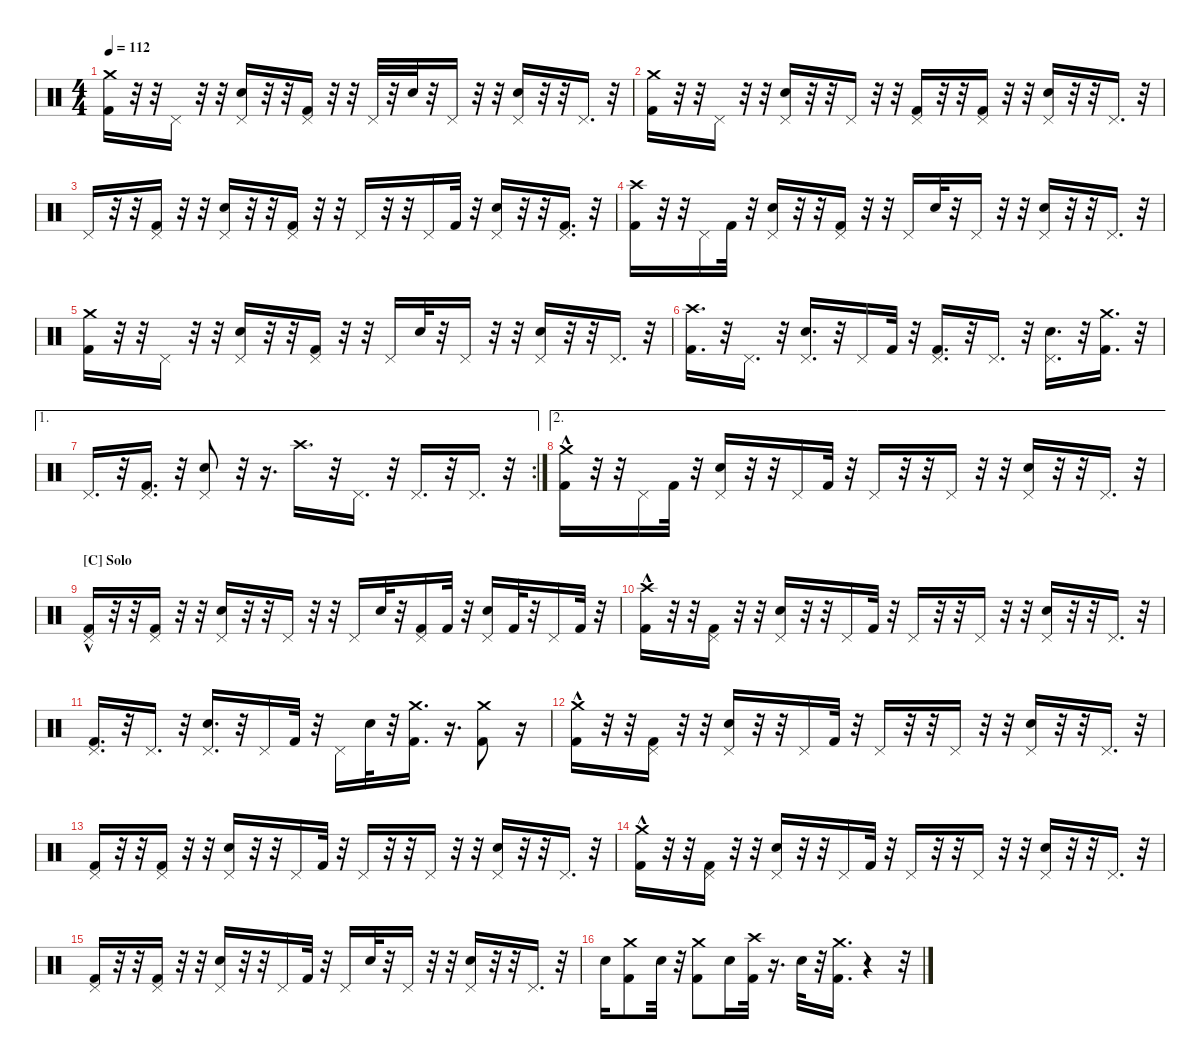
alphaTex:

\hideDynamics
\bracketExtendMode nobrackets
\singleTrackTrackNamePolicy hidden
\multiTrackTrackNamePolicy hidden
\firstSystemTrackNameMode fullname
\firstSystemTrackNameOrientation horizontal
\otherSystemsTrackNameOrientation horizontal
\track ("Drumkit" "Drums") {instrument percussion}
\staff {score}
\articulation defaults
\ts (4 4)
\tempo 112
\clef neutral
\ks c
("Crash medium (hit)" "Kick (hit) 2").16{dy f beam Down} r.32{beam Down} r.32{beam Down} "Pedal Hi-Hat (hit)".16{beam Down} r.32{beam Down} r.32{beam Down} ("Pedal Hi-Hat (hit)" "Snare (hit) 2").16{beam Up} r.32{beam Up} r.32{beam Up} ("Pedal Hi-Hat (hit)" "Kick (hit) 2").16{beam Up} r.32{beam Up} r.32{beam Up} "Pedal Hi-Hat (hit)".32{beam Up} r.32{beam Up} "Snare (hit) 2".32{beam Up} r.32{beam Up} "Pedal Hi-Hat (hit)".16{beam Up} r.32{beam Up} r.32{beam Up} ("Pedal Hi-Hat (hit)" "Snare (hit) 2").16{beam Up} r.32{beam Up} r.32{beam Up} "Pedal Hi-Hat (hit)".16{d beam Up} r.32{beam Up} |
("Kick (hit) 2" "Crash medium (hit)").16{beam Down} r.32{beam Down} r.32{beam Down} "Pedal Hi-Hat (hit)".16{beam Down} r.32{beam Down} r.32{beam Down} ("Pedal Hi-Hat (hit)" "Snare (hit) 2").16{beam Up} r.32{beam Up} r.32{beam Up} "Pedal Hi-Hat (hit)".16{beam Up} r.32{beam Up} r.32{beam Up} ("Pedal Hi-Hat (hit)" "Kick (hit) 2").16{beam Up} r.32{beam Up} r.32{beam Up} ("Pedal Hi-Hat (hit)" "Kick (hit) 2").16{beam Up} r.32{beam Up} r.32{beam Up} ("Pedal Hi-Hat (hit)" "Snare (hit) 2").16{beam Up} r.32{beam Up} r.32{beam Up} "Pedal Hi-Hat (hit)".16{d beam Up} r.32{beam Up} |
"Pedal Hi-Hat (hit)".16{beam Up} r.32{beam Up} r.32{beam Up} ("Pedal Hi-Hat (hit)" "Kick (hit) 2").16{beam Up} r.32{beam Up} r.32{beam Up} ("Pedal Hi-Hat (hit)" "Snare (hit) 2").16{beam Up} r.32{beam Up} r.32{beam Up} ("Pedal Hi-Hat (hit)" "Kick (hit) 2").16{beam Up} r.32{beam Up} r.32{beam Up} "Pedal Hi-Hat (hit)".16{beam Up} r.32{beam Up} r.32{beam Up} "Pedal Hi-Hat (hit)".16{beam Up} "Kick (hit) 2".32{beam Up} r.32{beam Up} ("Pedal Hi-Hat (hit)" "Snare (hit) 2").16{beam Up} r.32{beam Up} r.32{beam Up} ("Pedal Hi-Hat (hit)" "Kick (hit) 2").16{d beam Up} r.32{beam Up} |
("Crash high (hit)" "Kick (hit) 2").16{beam Down} r.32{beam Down} r.32{beam Down} "Pedal Hi-Hat (hit)".16{beam Down} "Kick (hit) 2".32{beam Down} r.32{beam Down} ("Pedal Hi-Hat (hit)" "Snare (hit) 2").16{beam Up} r.32{beam Up} r.32{beam Up} ("Pedal Hi-Hat (hit)" "Kick (hit) 2").16{beam Up} r.32{beam Up} r.32{beam Up} "Pedal Hi-Hat (hit)".16{beam Up} "Snare (hit) 2".32{beam Up} r.32{beam Up} "Pedal Hi-Hat (hit)".16{beam Up} r.32{beam Up} r.32{beam Up} ("Pedal Hi-Hat (hit)" "Snare (hit) 2").16{beam Up} r.32{beam Up} r.32{beam Up} "Pedal Hi-Hat (hit)".16{d beam Up} r.32{beam Up} |
("Crash medium (hit)" "Kick (hit) 2").16{beam Down} r.32{beam Down} r.32{beam Down} "Pedal Hi-Hat (hit)".16{beam Down} r.32{beam Down} r.32{beam Down} ("Pedal Hi-Hat (hit)" "Snare (hit) 2").16{beam Up} r.32{beam Up} r.32{beam Up} ("Pedal Hi-Hat (hit)" "Kick (hit) 2").16{beam Up} r.32{beam Up} r.32{beam Up} "Pedal Hi-Hat (hit)".16{beam Up} "Snare (hit) 2".32{beam Up} r.32{beam Up} "Pedal Hi-Hat (hit)".16{beam Up} r.32{beam Up} r.32{beam Up} ("Pedal Hi-Hat (hit)" "Snare (hit) 2").16{beam Up} r.32{beam Up} r.32{beam Up} "Pedal Hi-Hat (hit)".16{d beam Up} r.32{beam Up} |
("Crash high (hit)" "Kick (hit) 2").16{d beam Down} r.32{beam Down} "Pedal Hi-Hat (hit)".16{d beam Down} r.32{beam Down} ("Pedal Hi-Hat (hit)" "Snare (hit) 2").16{d beam Up} r.32{beam Up} "Pedal Hi-Hat (hit)".16{beam Up} "Kick (hit) 2".32{beam Up} r.32{beam Up} ("Pedal Hi-Hat (hit)" "Kick (hit) 2").16{d beam Up} r.32{beam Up} "Pedal Hi-Hat (hit)".16{d beam Up} r.32{beam Up} ("Pedal Hi-Hat (hit)" "Snare (hit) 2").16{d beam Down} r.32{beam Down} ("Kick (hit) 2" "Crash medium (hit)").16{d beam Down} r.32{beam Down} |
\ae 1
\rc 2 "Pedal Hi-Hat (hit)".16{d beam Up}
r.32{beam Up} ("Pedal Hi-Hat (hit)" "Kick (hit) 2").16{d beam Up} r.32{beam Up} ("Pedal Hi-Hat (hit)" "Snare (hit) 2").8{beam Up} r.32{beam Up} r.16{d beam Up} "Crash high (hit)".16{d beam Down} r.32{beam Down} "Pedal Hi-Hat (hit)".16{d beam Down} r.32{beam Down} "Pedal Hi-Hat (hit)".16{d beam Up} r.32{beam Up} "Pedal Hi-Hat (hit)".16{d beam Up} r.32{beam Up} |
\ae 2
("Kick (hit) 2"{hac} "Crash medium (hit)").16{beam Down} r.32{beam Down} r.32{beam Down} "Pedal Hi-Hat (hit)".16{beam Down} "Kick (hit) 2".32{beam Down} r.32{beam Down} ("Pedal Hi-Hat (hit)" "Snare (hit) 2").16{beam Up} r.32{beam Up} r.32{beam Up} "Pedal Hi-Hat (hit)".16{beam Up} "Kick (hit) 2".32{beam Up} r.32{beam Up} "Pedal Hi-Hat (hit)".16{beam Up} r.32{beam Up} r.32{beam Up} "Pedal Hi-Hat (hit)".16{beam Up} r.32{beam Up} r.32{beam Up} ("Pedal Hi-Hat (hit)" "Snare (hit) 2").16{beam Up} r.32{beam Up} r.32{beam Up} "Pedal Hi-Hat (hit)".16{d beam Up} r.32{beam Up} |
\section ("C" "Solo")
("Pedal Hi-Hat (hit)" "Kick (hit) 2"{hac}).16{beam Up} r.32{beam Up} r.32{beam Up} ("Pedal Hi-Hat (hit)" "Kick (hit) 2").16{beam Up} r.32{beam Up} r.32{beam Up} ("Pedal Hi-Hat (hit)" "Snare (hit) 2").16{beam Up} r.32{beam Up} r.32{beam Up} "Pedal Hi-Hat (hit)".16{beam Up} r.32{beam Up} r.32{beam Up} "Pedal Hi-Hat (hit)".16{beam Up} "Snare (hit) 2".32{beam Up} r.32{beam Up} ("Pedal Hi-Hat (hit)" "Kick (hit) 2").16{beam Up} "Kick (hit) 2".32{beam Up} r.32{beam Up} ("Pedal Hi-Hat (hit)" "Snare (hit) 2").16{beam Up} "Kick (hit) 2".32{beam Up} r.32{beam Up} "Pedal Hi-Hat (hit)".16{beam Up} "Kick (hit) 2".32{beam Up} r.32{beam Up} |
("Crash high (hit)" "Kick (hit) 2"{hac}).16{beam Down} r.32{beam Down} r.32{beam Down} ("Pedal Hi-Hat (hit)" "Kick (hit) 2").16{beam Down} r.32{beam Down} r.32{beam Down} ("Pedal Hi-Hat (hit)" "Snare (hit) 2").16{beam Up} r.32{beam Up} r.32{beam Up} "Pedal Hi-Hat (hit)".16{beam Up} "Kick (hit) 2".32{beam Up} r.32{beam Up} "Pedal Hi-Hat (hit)".16{beam Up} r.32{beam Up} r.32{beam Up} "Pedal Hi-Hat (hit)".16{beam Up} r.32{beam Up} r.32{beam Up} ("Pedal Hi-Hat (hit)" "Snare (hit) 2").16{beam Up} r.32{beam Up} r.32{beam Up} "Pedal Hi-Hat (hit)".16{d beam Up} r.32{beam Up} |
("Pedal Hi-Hat (hit)" "Kick (hit) 2").16{d beam Up} r.32{beam Up} "Pedal Hi-Hat (hit)".16{d beam Up} r.32{beam Up} ("Pedal Hi-Hat (hit)" "Snare (hit) 2").16{d beam Up} r.32{beam Up} "Pedal Hi-Hat (hit)".16{beam Up} "Kick (hit) 2".32{beam Up} r.32{beam Up} "Pedal Hi-Hat (hit)".16{beam Down} "Snare (hit) 2".32{beam Down} r.32{beam Down} ("Kick (hit) 2" "Crash medium (hit)").16{d beam Down} r.16{d beam Down} ("Kick (hit) 2" "Crash medium (hit)").8{beam Down} r.16{beam Down} |
("Kick (hit) 2"{hac} "Crash medium (hit)").16{beam Down} r.32{beam Down} r.32{beam Down} ("Pedal Hi-Hat (hit)" "Kick (hit) 2").16{beam Down} r.32{beam Down} r.32{beam Down} ("Pedal Hi-Hat (hit)" "Snare (hit) 2").16{beam Up} r.32{beam Up} r.32{beam Up} "Pedal Hi-Hat (hit)".16{beam Up} "Kick (hit) 2".32{beam Up} r.32{beam Up} "Pedal Hi-Hat (hit)".16{beam Up} r.32{beam Up} r.32{beam Up} "Pedal Hi-Hat (hit)".16{beam Up} r.32{beam Up} r.32{beam Up} ("Pedal Hi-Hat (hit)" "Snare (hit) 2").16{beam Up} r.32{beam Up} r.32{beam Up} "Pedal Hi-Hat (hit)".16{d beam Up} r.32{beam Up} |
("Pedal Hi-Hat (hit)" "Kick (hit) 2").16{beam Up} r.32{beam Up} r.32{beam Up} ("Pedal Hi-Hat (hit)" "Kick (hit) 2").16{beam Up} r.32{beam Up} r.32{beam Up} ("Pedal Hi-Hat (hit)" "Snare (hit) 2").16{beam Up} r.32{beam Up} r.32{beam Up} "Pedal Hi-Hat (hit)".16{beam Up} "Kick (hit) 2".32{beam Up} r.32{beam Up} "Pedal Hi-Hat (hit)".16{beam Up} r.32{beam Up} r.32{beam Up} "Pedal Hi-Hat (hit)".16{beam Up} r.32{beam Up} r.32{beam Up} ("Pedal Hi-Hat (hit)" "Snare (hit) 2").16{beam Up} r.32{beam Up} r.32{beam Up} "Pedal Hi-Hat (hit)".16{d beam Up} r.32{beam Up} |
("Kick (hit) 2"{hac} "Crash medium (hit)").16{beam Down} r.32{beam Down} r.32{beam Down} ("Pedal Hi-Hat (hit)" "Kick (hit) 2").16{beam Down} r.32{beam Down} r.32{beam Down} ("Pedal Hi-Hat (hit)" "Snare (hit) 2").16{beam Up} r.32{beam Up} r.32{beam Up} "Pedal Hi-Hat (hit)".16{beam Up} "Kick (hit) 2".32{beam Up} r.32{beam Up} "Pedal Hi-Hat (hit)".16{beam Up} r.32{beam Up} r.32{beam Up} "Pedal Hi-Hat (hit)".16{beam Up} r.32{beam Up} r.32{beam Up} ("Pedal Hi-Hat (hit)" "Snare (hit) 2").16{beam Up} r.32{beam Up} r.32{beam Up} "Pedal Hi-Hat (hit)".16{d beam Up} r.32{beam Up} |
("Pedal Hi-Hat (hit)" "Kick (hit) 2").16{beam Up} r.32{beam Up} r.32{beam Up} ("Pedal Hi-Hat (hit)" "Kick (hit) 2").16{beam Up} r.32{beam Up} r.32{beam Up} ("Pedal Hi-Hat (hit)" "Snare (hit) 2").16{beam Up} r.32{beam Up} r.32{beam Up} "Pedal Hi-Hat (hit)".16{beam Up} "Kick (hit) 2".32{beam Up} r.32{beam Up} "Pedal Hi-Hat (hit)".16{beam Up} "Snare (hit) 2".32{beam Up} r.32{beam Up} "Pedal Hi-Hat (hit)".16{beam Up} r.32{beam Up} r.32{beam Up} ("Pedal Hi-Hat (hit)" "Snare (hit) 2").16{beam Up} r.32{beam Up} r.32{beam Up} "Pedal Hi-Hat (hit)".16{d beam Up} r.32{beam Up} |
"Snare (hit) 2".16{beam Down} ("Kick (hit) 2" "Crash medium (hit)").8{beam Down} "Snare (hit) 2".32{beam Down} r.32{beam Down} ("Kick (hit) 2" "Crash medium (hit)").8{beam Down} "Snare (hit) 2".16{beam Down} ("Crash high (hit)" "Kick (hit) 2").32{beam Down} r.16{d beam Down} "Snare (hit) 2".32{beam Down} r.32{beam Down} ("Kick (hit) 2" "Crash medium (hit)").16{d beam Down} r.4{beam Down} r.32{beam Down}
